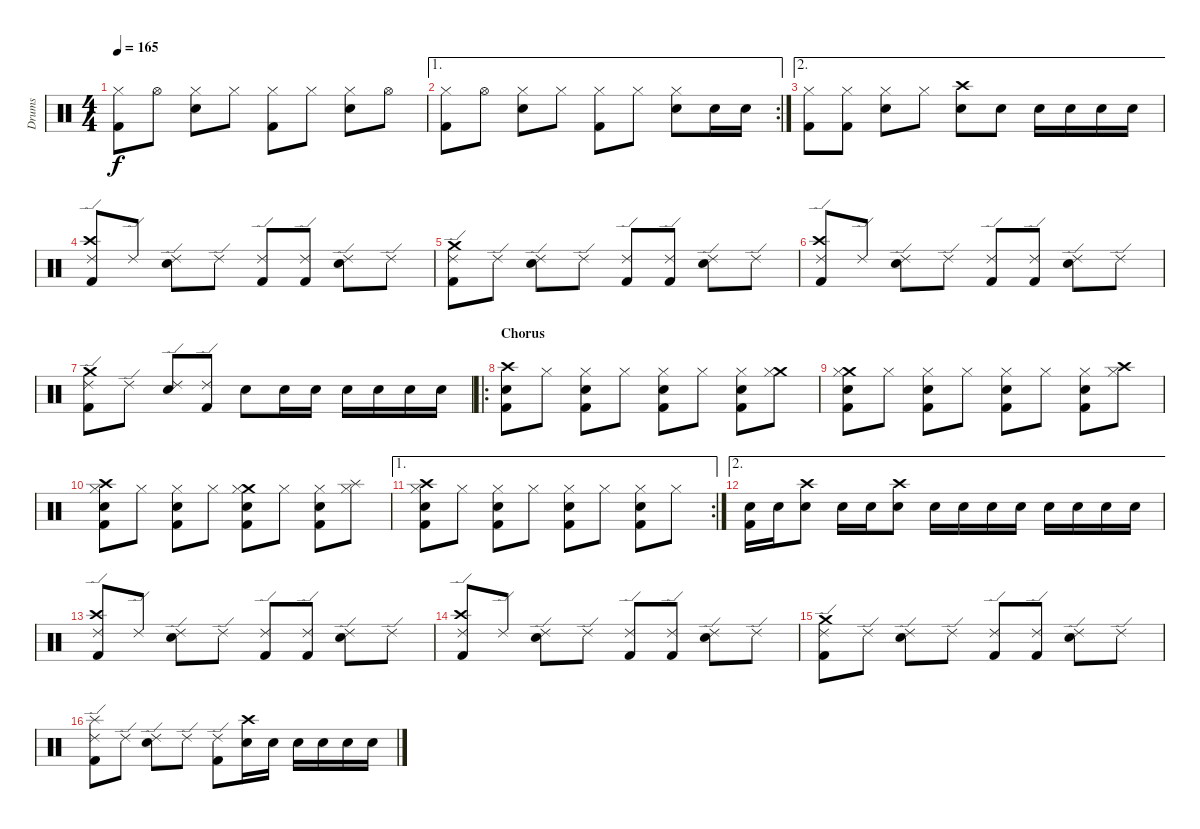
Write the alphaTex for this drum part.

\track ("Drums" "Drums") {instrument percussion}
\staff {score}
\articulation defaults
\ts (4 4)
\tempo 165
\clef neutral
\ks c
("Hi-Hat (closed)" "Kick (hit) 2").8{dy f} "Hi-Hat (open)".8 ("Hi-Hat (closed)" "Snare (hit) 2").8 "Hi-Hat (closed)".8 ("Hi-Hat (closed)" "Kick (hit) 2").8 "Hi-Hat (closed)".8 ("Hi-Hat (closed)" "Snare (hit) 2").8 "Hi-Hat (open)".8 |
\ae 1
\rc 2
("Hi-Hat (closed)" "Kick (hit) 2").8 "Hi-Hat (open)".8 ("Hi-Hat (closed)" "Snare (hit) 2").8 "Hi-Hat (closed)".8 ("Hi-Hat (closed)" "Kick (hit) 2").8 "Hi-Hat (closed)".8 ("Hi-Hat (closed)" "Snare (hit) 2").8 "Snare (hit) 2".16 "Snare (hit) 2".16 |
\ae 2
("Hi-Hat (closed)" "Kick (hit) 2").8 ("Hi-Hat (closed)" "Kick (hit) 2").8 ("Hi-Hat (closed)" "Snare (hit) 2").8 "Hi-Hat (closed)".8 ("Crash high (hit)" "Snare (hit) 2").8 "Snare (hit) 2".8 "Snare (hit) 2".16 "Snare (hit) 2".16 "Snare (hit) 2".16 "Snare (hit) 2".16 |
("Crash high (hit)" "Ride (edge) 2" "Kick (hit) 2").8 "Ride (edge) 2".8 ("Ride (edge) 2" "Snare (hit) 2").8 "Ride (edge) 2".8 ("Ride (edge) 2" "Kick (hit) 2").8 ("Ride (edge) 2" "Kick (hit) 2").8 ("Ride (edge) 2" "Snare (hit) 2").8 "Ride (edge) 2".8 |
("Crash medium (hit)" "Ride (edge) 2" "Kick (hit) 2").8 "Ride (edge) 2".8 ("Ride (edge) 2" "Snare (hit) 2").8 "Ride (edge) 2".8 ("Ride (edge) 2" "Kick (hit) 2").8 ("Ride (edge) 2" "Kick (hit) 2").8 ("Ride (edge) 2" "Snare (hit) 2").8 "Ride (edge) 2".8 |
("Crash high (hit)" "Ride (edge) 2" "Kick (hit) 2").8 "Ride (edge) 2".8 ("Ride (edge) 2" "Snare (hit) 2").8 "Ride (edge) 2".8 ("Ride (edge) 2" "Kick (hit) 2").8 ("Ride (edge) 2" "Kick (hit) 2").8 ("Ride (edge) 2" "Snare (hit) 2").8 "Ride (edge) 2".8 |
("Crash medium (hit)" "Ride (edge) 2" "Kick (hit) 2").8 "Ride (edge) 2".8 ("Ride (edge) 2" "Snare (hit) 2").8 ("Ride (edge) 2" "Kick (hit) 2").8 "Snare (hit) 2".8 "Snare (hit) 2".16 "Snare (hit) 2".16 "Snare (hit) 2".16 "Snare (hit) 2".16 "Snare (hit) 2".16 "Snare (hit) 2".16 |
\ro
\section ("" "Chorus")
("Crash high (hit)" "Snare (hit) 2" "Kick (hit) 2").8 "Hi-Hat (closed)".8 ("Hi-Hat (closed)" "Snare (hit) 2" "Kick (hit) 2").8 "Hi-Hat (closed)".8 ("Hi-Hat (closed)" "Snare (hit) 2" "Kick (hit) 2").8 "Hi-Hat (closed)".8 ("Hi-Hat (closed)" "Snare (hit) 2" "Kick (hit) 2").8 ("Crash medium (hit)" "Hi-Hat (closed)").8 |
("Crash medium (hit)" "Hi-Hat (closed)" "Snare (hit) 2" "Kick (hit) 2").8 "Hi-Hat (closed)".8 ("Hi-Hat (closed)" "Snare (hit) 2" "Kick (hit) 2").8 "Hi-Hat (closed)".8 ("Hi-Hat (closed)" "Snare (hit) 2" "Kick (hit) 2").8 "Hi-Hat (closed)".8 ("Hi-Hat (closed)" "Snare (hit) 2" "Kick (hit) 2").8 ("Crash high (hit)" "Hi-Hat (closed)").8 |
("Crash high (hit)" "Hi-Hat (closed)" "Snare (hit) 2" "Kick (hit) 2").8 "Hi-Hat (closed)".8 ("Hi-Hat (closed)" "Snare (hit) 2" "Kick (hit) 2").8 "Hi-Hat (closed)".8 ("Crash medium (hit)" "Hi-Hat (closed)" "Snare (hit) 2" "Kick (hit) 2").8 "Hi-Hat (closed)".8 ("Hi-Hat (closed)" "Snare (hit) 2" "Kick (hit) 2").8 ("Splash (hit)" "Hi-Hat (closed)").8 |
\ae 1
\rc 2
("Crash high (hit)" "Hi-Hat (closed)" "Snare (hit) 2" "Kick (hit) 2").8 "Hi-Hat (closed)".8 ("Hi-Hat (closed)" "Snare (hit) 2" "Kick (hit) 2").8 "Hi-Hat (closed)".8 ("Hi-Hat (closed)" "Snare (hit) 2" "Kick (hit) 2").8 "Hi-Hat (closed)".8 ("Hi-Hat (closed)" "Snare (hit) 2" "Kick (hit) 2").8 "Hi-Hat (closed)".8 |
\ae 2
("Snare (hit) 2" "Kick (hit) 2").16 "Snare (hit) 2".16 ("Crash high (hit)" "Snare (hit) 2").8 "Snare (hit) 2".16 "Snare (hit) 2".16 ("Crash high (hit)" "Snare (hit) 2").8 "Snare (hit) 2".16 "Snare (hit) 2".16 "Snare (hit) 2".16 "Snare (hit) 2".16 "Snare (hit) 2".16 "Snare (hit) 2".16 "Snare (hit) 2".16 "Snare (hit) 2".16 |
("Crash high (hit)" "Ride (edge) 2" "Kick (hit) 2").8 "Ride (edge) 2".8 ("Ride (edge) 2" "Snare (hit) 2").8 "Ride (edge) 2".8 ("Ride (edge) 2" "Kick (hit) 2").8 ("Ride (edge) 2" "Kick (hit) 2").8 ("Ride (edge) 2" "Snare (hit) 2").8 "Ride (edge) 2".8 |
("Crash high (hit)" "Ride (edge) 2" "Kick (hit) 2").8 "Ride (edge) 2".8 ("Ride (edge) 2" "Snare (hit) 2").8 "Ride (edge) 2".8 ("Ride (edge) 2" "Kick (hit) 2").8 ("Ride (edge) 2" "Kick (hit) 2").8 ("Ride (edge) 2" "Snare (hit) 2").8 "Ride (edge) 2".8 |
("Crash medium (hit)" "Ride (edge) 2" "Kick (hit) 2").8 "Ride (edge) 2".8 ("Ride (edge) 2" "Snare (hit) 2").8 "Ride (edge) 2".8 ("Ride (edge) 2" "Kick (hit) 2").8 ("Ride (edge) 2" "Kick (hit) 2").8 ("Ride (edge) 2" "Snare (hit) 2").8 "Ride (edge) 2".8 |
("Splash (hit)" "Ride (edge) 2" "Kick (hit) 2").8 "Ride (edge) 2".8 ("Ride (edge) 2" "Snare (hit) 2").8 "Ride (edge) 2".8 ("Ride (edge) 2" "Kick (hit) 2").8 ("Crash high (hit)" "Snare (hit) 2").16 "Snare (hit) 2".16 "Snare (hit) 2".16 "Snare (hit) 2".16 "Snare (hit) 2".16 "Snare (hit) 2".16
